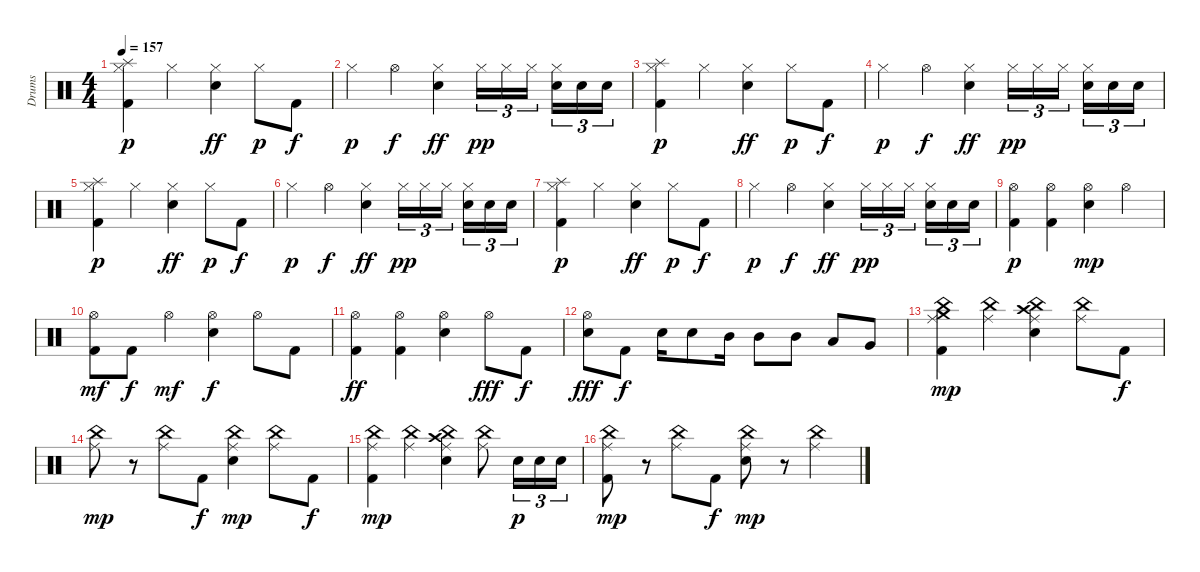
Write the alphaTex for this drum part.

\track ("Drums" "Drums") {instrument percussion}
\staff {score}
\articulation defaults
\ts (4 4)
\tempo 157
\clef neutral
\ks c
("Hi-Hat (closed)" "Splash (hit)" "Kick (hit) 2").4{dy p} "Hi-Hat (closed)".4 ("Hi-Hat (closed)" "Electric Snare (hit)").4{dy ff} "Hi-Hat (closed)".8{dy p} "Kick (hit) 2".8{dy f} |
"Hi-Hat (closed)".4{dy p} "Hi-Hat (open)".4{dy f} ("Hi-Hat (closed)" "Electric Snare (hit)").4{dy ff} "Hi-Hat (closed)".16{tu (3 2) dy pp} "Hi-Hat (closed)".16{tu (3 2)} "Hi-Hat (closed)".16{tu (3 2)} ("Hi-Hat (closed)" "Electric Snare (hit)").16{tu (3 2)} "Electric Snare (hit)".16{tu (3 2)} "Electric Snare (hit)".16{tu (3 2)} |
("Hi-Hat (closed)" "Splash (hit)" "Kick (hit) 2").4{dy p} "Hi-Hat (closed)".4 ("Hi-Hat (closed)" "Electric Snare (hit)").4{dy ff} "Hi-Hat (closed)".8{dy p} "Kick (hit) 2".8{dy f} |
"Hi-Hat (closed)".4{dy p} "Hi-Hat (open)".4{dy f} ("Hi-Hat (closed)" "Electric Snare (hit)").4{dy ff} "Hi-Hat (closed)".16{tu (3 2) dy pp} "Hi-Hat (closed)".16{tu (3 2)} "Hi-Hat (closed)".16{tu (3 2)} ("Hi-Hat (closed)" "Electric Snare (hit)").16{tu (3 2)} "Electric Snare (hit)".16{tu (3 2)} "Electric Snare (hit)".16{tu (3 2)} |
("Hi-Hat (closed)" "Splash (hit)" "Kick (hit) 2").4{dy p} "Hi-Hat (closed)".4 ("Hi-Hat (closed)" "Electric Snare (hit)").4{dy ff} "Hi-Hat (closed)".8{dy p} "Kick (hit) 2".8{dy f} |
"Hi-Hat (closed)".4{dy p} "Hi-Hat (open)".4{dy f} ("Hi-Hat (closed)" "Electric Snare (hit)").4{dy ff} "Hi-Hat (closed)".16{tu (3 2) dy pp} "Hi-Hat (closed)".16{tu (3 2)} "Hi-Hat (closed)".16{tu (3 2)} ("Hi-Hat (closed)" "Electric Snare (hit)").16{tu (3 2)} "Electric Snare (hit)".16{tu (3 2)} "Electric Snare (hit)".16{tu (3 2)} |
("Hi-Hat (closed)" "Splash (hit)" "Kick (hit) 2").4{dy p} "Hi-Hat (closed)".4 ("Hi-Hat (closed)" "Electric Snare (hit)").4{dy ff} "Hi-Hat (closed)".8{dy p} "Kick (hit) 2".8{dy f} |
"Hi-Hat (closed)".4{dy p} "Hi-Hat (open)".4{dy f} ("Hi-Hat (closed)" "Electric Snare (hit)").4{dy ff} "Hi-Hat (closed)".16{tu (3 2) dy pp} "Hi-Hat (closed)".16{tu (3 2)} "Hi-Hat (closed)".16{tu (3 2)} ("Hi-Hat (closed)" "Electric Snare (hit)").16{tu (3 2)} "Electric Snare (hit)".16{tu (3 2)} "Electric Snare (hit)".16{tu (3 2)} |
("Hi-Hat (open)" "Kick (hit) 2").4{dy p} ("Hi-Hat (open)" "Kick (hit) 2").4 ("Hi-Hat (open)" "Electric Snare (hit)").4{dy mp} "Hi-Hat (open)".4 |
("Hi-Hat (open)" "Kick (hit) 2").8{dy mf} "Kick (hit) 2".8{dy f} "Hi-Hat (open)".4{dy mf} ("Hi-Hat (open)" "Electric Snare (hit)").4{dy f} "Hi-Hat (open)".8 "Kick (hit) 2".8 |
("Hi-Hat (open)" "Kick (hit) 2").4{dy ff} ("Hi-Hat (open)" "Kick (hit) 2").4 ("Hi-Hat (open)" "Electric Snare (hit)").4 "Hi-Hat (open)".8{dy fff} "Kick (hit) 2".8{dy f} |
("Hi-Hat (open)" "Electric Snare (hit)").8{dy fff} "Kick (hit) 2".8{dy f} "Electric Snare (hit)".16 "Electric Snare (hit)".8 "Mid Tom (hit)".16 "Mid Tom (hit)".8 "Mid Tom (hit)".8 "Low Tom (hit)".8 "Very Low Tom (hit)".8 |
("Ride (middle)" "Crash medium (hit)" "China (hit)" "Kick (hit) 2").4{dy mp} ("Ride (middle)" "China (hit)").4 ("Ride (middle)" "Crash high (hit)" "China (hit)" "Electric Snare (hit)").4 ("Ride (middle)" "China (hit)").8 "Kick (hit) 2".8{dy f} |
("Ride (middle)" "China (hit)").8{dy mp} r.8 ("Ride (middle)" "China (hit)").8 "Kick (hit) 2".8{dy f} ("Ride (middle)" "China (hit)" "Electric Snare (hit)").4{dy mp} ("Ride (middle)" "China (hit)").8 "Kick (hit) 2".8{dy f} |
("Ride (middle)" "China (hit)" "Kick (hit) 2").4{dy mp} ("Ride (middle)" "China (hit)").4 ("Ride (middle)" "Crash high (hit)" "China (hit)" "Electric Snare (hit)").4 ("Ride (middle)" "China (hit)").8 "Electric Snare (hit)".16{tu (3 2) dy p} "Electric Snare (hit)".16{tu (3 2)} "Electric Snare (hit)".16{tu (3 2)} |
("Ride (middle)" "China (hit)" "Kick (hit) 2").8{dy mp} r.8 ("Ride (middle)" "China (hit)").8 "Kick (hit) 2".8{dy f} ("Ride (middle)" "China (hit)" "Electric Snare (hit)").8{dy mp} r.8 ("Ride (middle)" "China (hit)").4
